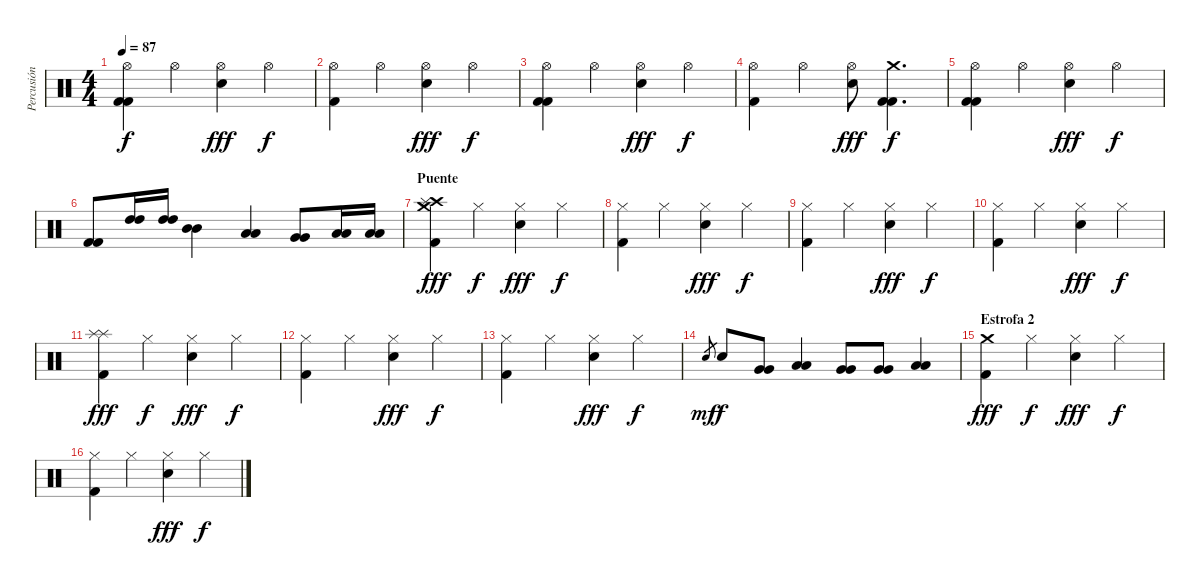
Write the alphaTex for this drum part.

\track ("Percusión" "Percusión") {instrument percussion}
\staff {score}
\articulation defaults
\ts (4 4)
\tempo 87
\clef neutral
\ks c
("Hi-Hat (open)" "Kick (hit) 2" "Kick (hit) 2").4{dy f} "Hi-Hat (open)".4 ("Hi-Hat (open)" "Snare (hit) 2").4{dy fff} "Hi-Hat (open)".4{dy f} |
("Hi-Hat (open)" "Kick (hit) 2").4 "Hi-Hat (open)".4 ("Hi-Hat (open)" "Snare (hit) 2").4{dy fff} "Hi-Hat (open)".4{dy f} |
("Hi-Hat (open)" "Kick (hit) 2" "Kick (hit) 2").4 "Hi-Hat (open)".4 ("Hi-Hat (open)" "Snare (hit) 2").4{dy fff} "Hi-Hat (open)".4{dy f} |
("Hi-Hat (open)" "Kick (hit) 2").4 "Hi-Hat (open)".4 ("Hi-Hat (open)" "Snare (hit) 2").8{dy fff} ("Crash medium (hit)" "Kick (hit) 2" "Kick (hit) 2").4{d dy f} |
("Hi-Hat (open)" "Kick (hit) 2" "Kick (hit) 2").4 "Hi-Hat (open)".4 ("Hi-Hat (open)" "Snare (hit) 2").4{dy fff} "Hi-Hat (open)".4{dy f} |
("Kick (hit) 2" "Kick (hit) 2").8 ("High Tom (hit)" "High Tom (hit)").16 ("High Tom (hit)" "High Tom (hit)").16 ("Mid Tom (hit)" "Mid Tom (hit)").4 ("Low Tom (hit)" "Low Tom (hit)").4 ("Very Low Tom (hit)" "Very Low Tom (hit)").8 ("Low Tom (hit)" "Low Tom (hit)").16 ("Low Tom (hit)" "Low Tom (hit)").16 |
\section ("" "Puente")
("Crash medium (hit)" "Crash high (hit)" "Splash (hit)" "Kick (hit) 2").4{dy fff} "Hi-Hat (closed)".4{dy f} ("Hi-Hat (closed)" "Snare (hit) 2").4{dy fff} "Hi-Hat (closed)".4{dy f} |
("Hi-Hat (closed)" "Kick (hit) 2").4 "Hi-Hat (closed)".4 ("Hi-Hat (closed)" "Snare (hit) 2").4{dy fff} "Hi-Hat (closed)".4{dy f} |
("Hi-Hat (closed)" "Kick (hit) 2").4 "Hi-Hat (closed)".4 ("Hi-Hat (closed)" "Snare (hit) 2").4{dy fff} "Hi-Hat (closed)".4{dy f} |
("Hi-Hat (closed)" "Kick (hit) 2").4 "Hi-Hat (closed)".4 ("Hi-Hat (closed)" "Snare (hit) 2").4{dy fff} "Hi-Hat (closed)".4{dy f} |
("Splash (hit)" "Splash (hit)" "Kick (hit) 2").4{dy fff} "Hi-Hat (closed)".4{dy f} ("Hi-Hat (closed)" "Snare (hit) 2").4{dy fff} "Hi-Hat (closed)".4{dy f} |
("Hi-Hat (closed)" "Kick (hit) 2").4 "Hi-Hat (closed)".4 ("Hi-Hat (closed)" "Snare (hit) 2").4{dy fff} "Hi-Hat (closed)".4{dy f} |
("Hi-Hat (closed)" "Kick (hit) 2").4 "Hi-Hat (closed)".4 ("Hi-Hat (closed)" "Snare (hit) 2").4{dy fff} "Hi-Hat (closed)".4{dy f} |
"Snare (hit) 2"{h}.8{gr dy mf} "Snare (hit) 2".8{dy f} ("Very Low Tom (hit)" "Very Low Tom (hit)").8 ("Low Tom (hit)" "Low Tom (hit)").4 ("Very Low Tom (hit)" "Very Low Tom (hit)").8 ("Very Low Tom (hit)" "Very Low Tom (hit)").8 ("Low Tom (hit)" "Low Tom (hit)").4 |
\section ("" "Estrofa 2")
("Crash medium (hit)" "Kick (hit) 2").4{dy fff} "Hi-Hat (closed)".4{dy f} ("Hi-Hat (closed)" "Snare (hit) 2").4{dy fff} "Hi-Hat (closed)".4{dy f} |
("Hi-Hat (closed)" "Kick (hit) 2").4 "Hi-Hat (closed)".4 ("Hi-Hat (closed)" "Snare (hit) 2").4{dy fff} "Hi-Hat (closed)".4{dy f}
